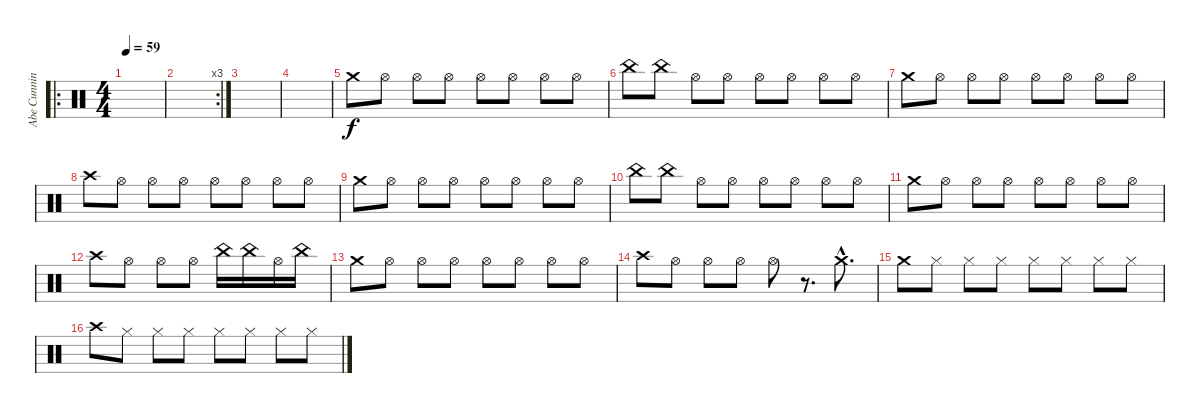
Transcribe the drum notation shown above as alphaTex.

\track ("Abe Cunningham Cymbals" "Abe Cunnin") {instrument percussion}
\staff {score}
\articulation defaults
\ro
\ts (4 4)
\tempo 59
\clef neutral
\ks c
|
\rc 3
|
|
|
"Crash medium (hit)".8 "Hi-Hat (open)".8 "Hi-Hat (open)".8 "Hi-Hat (open)".8 "Hi-Hat (open)".8 "Hi-Hat (open)".8 "Hi-Hat (open)".8 "Hi-Hat (open)".8 |
"China (hit)".8 "China (hit)".8 "Hi-Hat (open)".8 "Hi-Hat (open)".8 "Hi-Hat (open)".8 "Hi-Hat (open)".8 "Hi-Hat (open)".8 "Hi-Hat (open)".8 |
"Crash medium (hit)".8 "Hi-Hat (open)".8 "Hi-Hat (open)".8 "Hi-Hat (open)".8 "Hi-Hat (open)".8 "Hi-Hat (open)".8 "Hi-Hat (open)".8 "Hi-Hat (open)".8 |
"Crash high (hit)".8 "Hi-Hat (open)".8 "Hi-Hat (open)".8 "Hi-Hat (open)".8 "Hi-Hat (open)".8 "Hi-Hat (open)".8 "Hi-Hat (open)".8 "Hi-Hat (open)".8 |
"Crash medium (hit)".8 "Hi-Hat (open)".8 "Hi-Hat (open)".8 "Hi-Hat (open)".8 "Hi-Hat (open)".8 "Hi-Hat (open)".8 "Hi-Hat (open)".8 "Hi-Hat (open)".8 |
"China (hit)".8 "China (hit)".8 "Hi-Hat (open)".8 "Hi-Hat (open)".8 "Hi-Hat (open)".8 "Hi-Hat (open)".8 "Hi-Hat (open)".8 "Hi-Hat (open)".8 |
"Crash medium (hit)".8 "Hi-Hat (open)".8 "Hi-Hat (open)".8 "Hi-Hat (open)".8 "Hi-Hat (open)".8 "Hi-Hat (open)".8 "Hi-Hat (open)".8 "Hi-Hat (open)".8 |
"Crash high (hit)".8 "Hi-Hat (open)".8 "Hi-Hat (open)".8 "Hi-Hat (open)".8 "China (hit)".16 "China (hit)".16 "Hi-Hat (open)".16 "China (hit)".16 |
"Crash medium (hit)".8 "Hi-Hat (open)".8 "Hi-Hat (open)".8 "Hi-Hat (open)".8 "Hi-Hat (open)".8 "Hi-Hat (open)".8 "Hi-Hat (open)".8 "Hi-Hat (open)".8 |
"Crash high (hit)".8 "Hi-Hat (open)".8 "Hi-Hat (open)".8 "Hi-Hat (open)".8 "Hi-Hat (open)".8 r.8{d} "Crash medium (hit)"{hac}.8{d} |
"Crash medium (hit)".8 "Hi-Hat (closed)".8 "Hi-Hat (closed)".8 "Hi-Hat (closed)".8 "Hi-Hat (closed)".8 "Hi-Hat (closed)".8 "Hi-Hat (closed)".8 "Hi-Hat (closed)".8 |
"Crash high (hit)".8 "Hi-Hat (closed)".8 "Hi-Hat (closed)".8 "Hi-Hat (closed)".8 "Hi-Hat (closed)".8 "Hi-Hat (closed)".8 "Hi-Hat (closed)".8 "Hi-Hat (closed)".8
